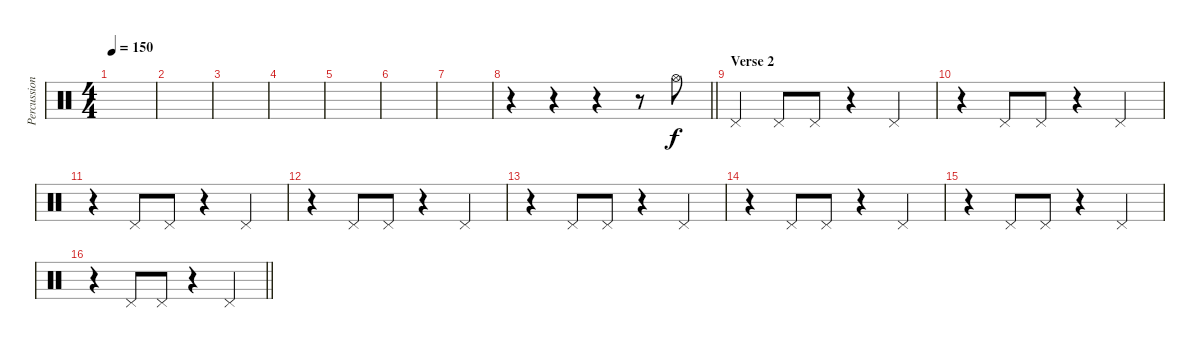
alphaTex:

\track ("Percussion" "Percussion") {instrument percussion}
\staff {score}
\articulation defaults
\ts (4 4)
\tempo 150
\clef neutral
\ks c
|
|
|
|
|
|
|
\barLineRight lightlight
r.4 r.4 r.4 r.8 "Hi-Hat (open)".8 |
\section ("" "Verse 2")
"Pedal Hi-Hat (hit)".4 "Pedal Hi-Hat (hit)".8 "Pedal Hi-Hat (hit)".8 r.4 "Pedal Hi-Hat (hit)".4 |
r.4 "Pedal Hi-Hat (hit)".8 "Pedal Hi-Hat (hit)".8 r.4 "Pedal Hi-Hat (hit)".4 |
r.4 "Pedal Hi-Hat (hit)".8 "Pedal Hi-Hat (hit)".8 r.4 "Pedal Hi-Hat (hit)".4 |
r.4 "Pedal Hi-Hat (hit)".8 "Pedal Hi-Hat (hit)".8 r.4 "Pedal Hi-Hat (hit)".4 |
r.4 "Pedal Hi-Hat (hit)".8 "Pedal Hi-Hat (hit)".8 r.4 "Pedal Hi-Hat (hit)".4 |
r.4 "Pedal Hi-Hat (hit)".8 "Pedal Hi-Hat (hit)".8 r.4 "Pedal Hi-Hat (hit)".4 |
r.4 "Pedal Hi-Hat (hit)".8 "Pedal Hi-Hat (hit)".8 r.4 "Pedal Hi-Hat (hit)".4 |
\barLineRight lightlight
r.4 "Pedal Hi-Hat (hit)".8 "Pedal Hi-Hat (hit)".8 r.4 "Pedal Hi-Hat (hit)".4
